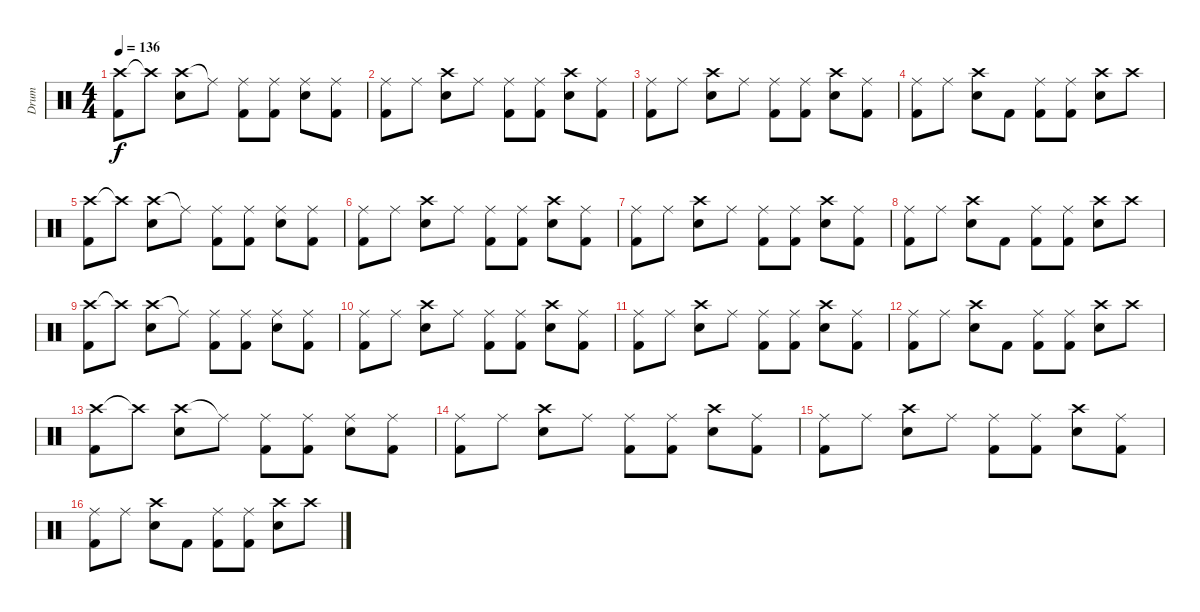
\track ("Drum" "Drum") {instrument percussion}
\staff {score}
\articulation defaults
\ts (4 4)
\tempo 136
\clef neutral
\ks c
("Crash high (hit)" "Kick (hit) 2").8{dy f} "Crash high (hit)"{t}.8 ("Crash high (hit)" "Electric Snare (hit)").8 "Ride (middle)"{t}.8 ("Ride (middle)" "Kick (hit) 2").8 ("Ride (middle)" "Kick (hit) 2").8 ("Ride (middle)" "Electric Snare (hit)").8 ("Ride (middle)" "Kick (hit) 2").8 |
("Ride (middle)" "Kick (hit) 2").8 "Ride (middle)".8 ("Crash high (hit)" "Electric Snare (hit)").8 "Ride (middle)".8 ("Ride (middle)" "Kick (hit) 2").8 ("Ride (middle)" "Kick (hit) 2").8 ("Crash high (hit)" "Electric Snare (hit)").8 ("Ride (middle)" "Kick (hit) 2").8 |
("Ride (middle)" "Kick (hit) 2").8 "Ride (middle)".8 ("Crash high (hit)" "Electric Snare (hit)").8 "Ride (middle)".8 ("Ride (middle)" "Kick (hit) 2").8 ("Ride (middle)" "Kick (hit) 2").8 ("Crash high (hit)" "Electric Snare (hit)").8 ("Ride (middle)" "Kick (hit) 2").8 |
("Ride (middle)" "Kick (hit) 2").8 "Ride (middle)".8 ("Crash high (hit)" "Electric Snare (hit)").8 "Kick (hit) 2".8 ("Ride (middle)" "Kick (hit) 2").8 ("Ride (middle)" "Kick (hit) 2").8 ("Crash high (hit)" "Electric Snare (hit)").8 "Crash high (hit)".8 |
("Crash high (hit)" "Kick (hit) 2").8 "Crash high (hit)"{t}.8 ("Crash high (hit)" "Electric Snare (hit)").8 "Ride (middle)"{t}.8 ("Ride (middle)" "Kick (hit) 2").8 ("Ride (middle)" "Kick (hit) 2").8 ("Ride (middle)" "Electric Snare (hit)").8 ("Ride (middle)" "Kick (hit) 2").8 |
("Ride (middle)" "Kick (hit) 2").8 "Ride (middle)".8 ("Crash high (hit)" "Electric Snare (hit)").8 "Ride (middle)".8 ("Ride (middle)" "Kick (hit) 2").8 ("Ride (middle)" "Kick (hit) 2").8 ("Crash high (hit)" "Electric Snare (hit)").8 ("Ride (middle)" "Kick (hit) 2").8 |
("Ride (middle)" "Kick (hit) 2").8 "Ride (middle)".8 ("Crash high (hit)" "Electric Snare (hit)").8 "Ride (middle)".8 ("Ride (middle)" "Kick (hit) 2").8 ("Ride (middle)" "Kick (hit) 2").8 ("Crash high (hit)" "Electric Snare (hit)").8 ("Ride (middle)" "Kick (hit) 2").8 |
("Ride (middle)" "Kick (hit) 2").8 "Ride (middle)".8 ("Crash high (hit)" "Electric Snare (hit)").8 "Kick (hit) 2".8 ("Ride (middle)" "Kick (hit) 2").8 ("Ride (middle)" "Kick (hit) 2").8 ("Crash high (hit)" "Electric Snare (hit)").8 "Crash high (hit)".8 |
("Crash high (hit)" "Kick (hit) 2").8 "Crash high (hit)"{t}.8 ("Crash high (hit)" "Electric Snare (hit)").8 "Ride (middle)"{t}.8 ("Ride (middle)" "Kick (hit) 2").8 ("Ride (middle)" "Kick (hit) 2").8 ("Ride (middle)" "Electric Snare (hit)").8 ("Ride (middle)" "Kick (hit) 2").8 |
("Ride (middle)" "Kick (hit) 2").8 "Ride (middle)".8 ("Crash high (hit)" "Electric Snare (hit)").8 "Ride (middle)".8 ("Ride (middle)" "Kick (hit) 2").8 ("Ride (middle)" "Kick (hit) 2").8 ("Crash high (hit)" "Electric Snare (hit)").8 ("Ride (middle)" "Kick (hit) 2").8 |
("Ride (middle)" "Kick (hit) 2").8 "Ride (middle)".8 ("Crash high (hit)" "Electric Snare (hit)").8 "Ride (middle)".8 ("Ride (middle)" "Kick (hit) 2").8 ("Ride (middle)" "Kick (hit) 2").8 ("Crash high (hit)" "Electric Snare (hit)").8 ("Ride (middle)" "Kick (hit) 2").8 |
("Ride (middle)" "Kick (hit) 2").8 "Ride (middle)".8 ("Crash high (hit)" "Electric Snare (hit)").8 "Kick (hit) 2".8 ("Ride (middle)" "Kick (hit) 2").8 ("Ride (middle)" "Kick (hit) 2").8 ("Crash high (hit)" "Electric Snare (hit)").8 "Crash high (hit)".8 |
("Crash high (hit)" "Kick (hit) 2").8 "Crash high (hit)"{t}.8 ("Crash high (hit)" "Electric Snare (hit)").8 "Ride (middle)"{t}.8 ("Ride (middle)" "Kick (hit) 2").8 ("Ride (middle)" "Kick (hit) 2").8 ("Ride (middle)" "Electric Snare (hit)").8 ("Ride (middle)" "Kick (hit) 2").8 |
("Ride (middle)" "Kick (hit) 2").8 "Ride (middle)".8 ("Crash high (hit)" "Electric Snare (hit)").8 "Ride (middle)".8 ("Ride (middle)" "Kick (hit) 2").8 ("Ride (middle)" "Kick (hit) 2").8 ("Crash high (hit)" "Electric Snare (hit)").8 ("Ride (middle)" "Kick (hit) 2").8 |
("Ride (middle)" "Kick (hit) 2").8 "Ride (middle)".8 ("Crash high (hit)" "Electric Snare (hit)").8 "Ride (middle)".8 ("Ride (middle)" "Kick (hit) 2").8 ("Ride (middle)" "Kick (hit) 2").8 ("Crash high (hit)" "Electric Snare (hit)").8 ("Ride (middle)" "Kick (hit) 2").8 |
("Ride (middle)" "Kick (hit) 2").8 "Ride (middle)".8 ("Crash high (hit)" "Electric Snare (hit)").8 "Kick (hit) 2".8 ("Ride (middle)" "Kick (hit) 2").8 ("Ride (middle)" "Kick (hit) 2").8 ("Crash high (hit)" "Electric Snare (hit)").8 "Crash high (hit)".8
